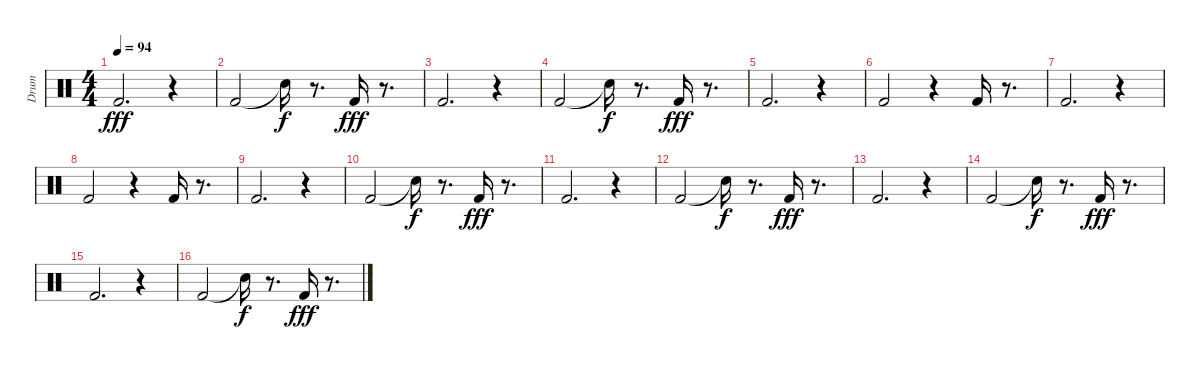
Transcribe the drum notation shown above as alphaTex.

\track ("Drum                    " "Drum      ") {instrument percussion}
\staff {score}
\articulation defaults
\ts (4 4)
\tempo 94
\clef neutral
\ks c "Kick (hit) 2".2{d dy fff}
r.4 |
"Kick (hit) 2".2 "Snare (hit)"{t}.16{dy f} r.8{d} "Kick (hit) 2".16{dy fff} r.8{d} |
"Kick (hit) 2".2{d} r.4 |
"Kick (hit) 2".2 "Snare (hit)"{t}.16{dy f} r.8{d} "Kick (hit) 2".16{dy fff} r.8{d} |
"Kick (hit) 2".2{d} r.4 |
"Kick (hit) 2".2 r.4 "Kick (hit) 2".16 r.8{d} |
"Kick (hit) 2".2{d} r.4 |
"Kick (hit) 2".2 r.4 "Kick (hit) 2".16 r.8{d} |
"Kick (hit) 2".2{d} r.4 |
"Kick (hit) 2".2 "Snare (hit)"{t}.16{dy f} r.8{d} "Kick (hit) 2".16{dy fff} r.8{d} |
"Kick (hit) 2".2{d} r.4 |
"Kick (hit) 2".2 "Snare (hit)"{t}.16{dy f} r.8{d} "Kick (hit) 2".16{dy fff} r.8{d} |
"Kick (hit) 2".2{d} r.4 |
"Kick (hit) 2".2 "Snare (hit)"{t}.16{dy f} r.8{d} "Kick (hit) 2".16{dy fff} r.8{d} |
"Kick (hit) 2".2{d} r.4 |
"Kick (hit) 2".2 "Snare (hit)"{t}.16{dy f} r.8{d} "Kick (hit) 2".16{dy fff} r.8{d}
